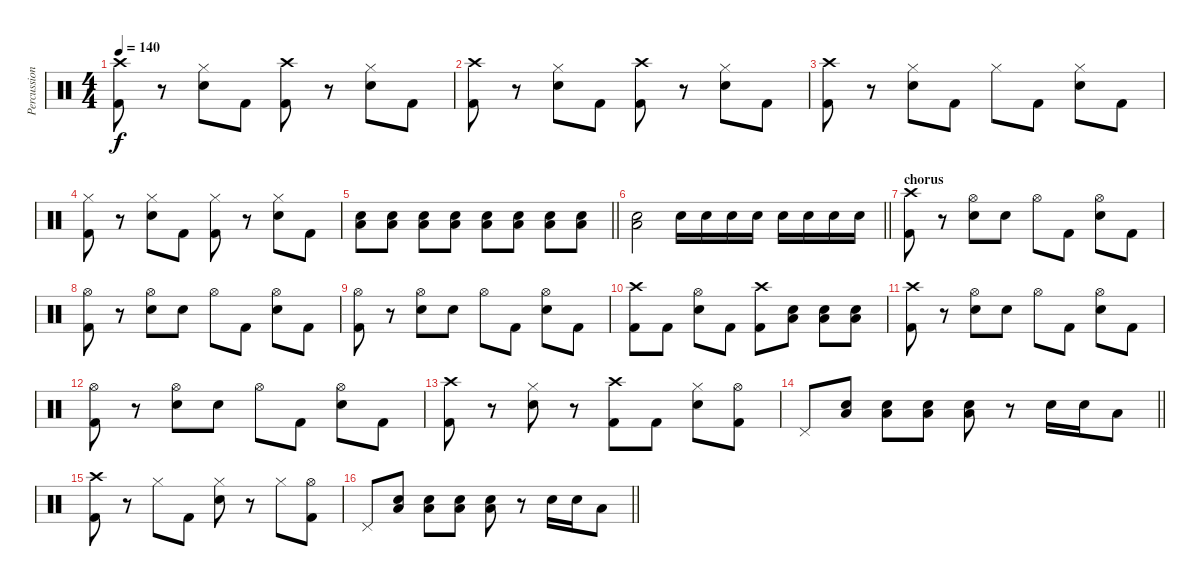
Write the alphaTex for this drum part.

\track ("Percussion" "Percussion") {instrument percussion}
\staff {score}
\articulation defaults
\ts (4 4)
\tempo 140
\clef neutral
\ks c
("Crash high (hit)" "Kick (hit) 2").8{dy f} r.8 ("Hi-Hat (closed)" "Snare (hit) 2").8 "Kick (hit) 2".8 ("Crash high (hit)" "Kick (hit) 2").8 r.8 ("Hi-Hat (closed)" "Snare (hit) 2").8 "Kick (hit) 2".8 |
("Crash high (hit)" "Kick (hit) 2").8 r.8 ("Hi-Hat (closed)" "Snare (hit) 2").8 "Kick (hit) 2".8 ("Crash high (hit)" "Kick (hit) 2").8 r.8 ("Hi-Hat (closed)" "Snare (hit) 2").8 "Kick (hit) 2".8 |
("Crash high (hit)" "Kick (hit) 2").8 r.8 ("Hi-Hat (closed)" "Snare (hit) 2").8 "Kick (hit) 2".8 "Hi-Hat (closed)".8 "Kick (hit) 2".8 ("Hi-Hat (closed)" "Snare (hit) 2").8 "Kick (hit) 2".8 |
("Hi-Hat (closed)" "Kick (hit) 2").8 r.8 ("Hi-Hat (closed)" "Snare (hit) 2").8 "Kick (hit) 2".8 ("Hi-Hat (closed)" "Kick (hit) 2").8 r.8 ("Hi-Hat (closed)" "Snare (hit) 2").8 "Kick (hit) 2".8 |
\barLineRight lightlight
("Low Floor Tom (hit)" "Snare (hit) 2").8 ("Low Floor Tom (hit)" "Snare (hit) 2").8 ("Low Floor Tom (hit)" "Snare (hit) 2").8 ("Low Floor Tom (hit)" "Snare (hit) 2").8 ("Low Floor Tom (hit)" "Snare (hit) 2").8 ("Low Floor Tom (hit)" "Snare (hit) 2").8 ("Low Floor Tom (hit)" "Snare (hit) 2").8 ("Low Floor Tom (hit)" "Snare (hit) 2").8 |
\barLineRight lightlight
("Low Floor Tom (hit)" "Snare (hit) 2").2 "Snare (hit) 2".16 "Snare (hit) 2".16 "Snare (hit) 2".16 "Snare (hit) 2".16 "Snare (hit) 2".16 "Snare (hit) 2".16 "Snare (hit) 2".16 "Snare (hit) 2".16 |
\section ("" "chorus")
("Crash high (hit)" "Kick (hit) 2").8 r.8 ("Hi-Hat (open)" "Snare (hit) 2").8 "Snare (hit) 2".8 "Hi-Hat (open)".8 "Kick (hit) 2".8 ("Hi-Hat (open)" "Snare (hit) 2").8 "Kick (hit) 2".8 |
("Hi-Hat (open)" "Kick (hit) 2").8 r.8 ("Hi-Hat (open)" "Snare (hit) 2").8 "Snare (hit) 2".8 "Hi-Hat (open)".8 "Kick (hit) 2".8 ("Hi-Hat (open)" "Snare (hit) 2").8 "Kick (hit) 2".8 |
("Hi-Hat (open)" "Kick (hit) 2").8 r.8 ("Hi-Hat (open)" "Snare (hit) 2").8 "Snare (hit) 2".8 "Hi-Hat (open)".8 "Kick (hit) 2".8 ("Hi-Hat (open)" "Snare (hit) 2").8 "Kick (hit) 2".8 |
("Crash high (hit)" "Kick (hit) 2").8 "Kick (hit) 2".8 ("Hi-Hat (open)" "Snare (hit) 2").8 "Kick (hit) 2".8 ("Crash high (hit)" "Kick (hit) 2").8 ("Low Floor Tom (hit)" "Snare (hit) 2").8 ("Low Floor Tom (hit)" "Snare (hit) 2").8 ("Low Floor Tom (hit)" "Snare (hit) 2").8 |
("Crash high (hit)" "Kick (hit) 2").8 r.8 ("Hi-Hat (open)" "Snare (hit) 2").8 "Snare (hit) 2".8 "Hi-Hat (open)".8 "Kick (hit) 2".8 ("Hi-Hat (open)" "Snare (hit) 2").8 "Kick (hit) 2".8 |
("Hi-Hat (open)" "Kick (hit) 2").8 r.8 ("Hi-Hat (open)" "Snare (hit) 2").8 "Snare (hit) 2".8 "Hi-Hat (open)".8 "Kick (hit) 2".8 ("Hi-Hat (open)" "Snare (hit) 2").8 "Kick (hit) 2".8 |
("Crash high (hit)" "Kick (hit) 2").8 r.8 ("Hi-Hat (closed)" "Snare (hit) 2").8 r.8 ("Crash high (hit)" "Kick (hit) 2").8 "Kick (hit) 2".8 ("Hi-Hat (closed)" "Snare (hit) 2").8 ("Hi-Hat (open)" "Kick (hit) 2").8 |
\barLineRight lightlight "Pedal Hi-Hat (hit)".8
("Low Floor Tom (hit)" "Snare (hit) 2").8 ("Low Floor Tom (hit)" "Snare (hit) 2").8 ("Low Floor Tom (hit)" "Snare (hit) 2").8 ("Low Floor Tom (hit)" "Snare (hit) 2").8 r.8 "Snare (hit) 2".16 "Snare (hit) 2".16 "Low Floor Tom (hit)".8 |
("Crash high (hit)" "Kick (hit) 2").8 r.8 "Hi-Hat (closed)".8 "Kick (hit) 2".8 ("Hi-Hat (closed)" "Snare (hit) 2").8 r.8 "Hi-Hat (closed)".8 ("Hi-Hat (open)" "Kick (hit) 2").8 |
\barLineRight lightlight "Pedal Hi-Hat (hit)".8
("Low Floor Tom (hit)" "Snare (hit) 2").8 ("Low Floor Tom (hit)" "Snare (hit) 2").8 ("Low Floor Tom (hit)" "Snare (hit) 2").8 ("Low Floor Tom (hit)" "Snare (hit) 2").8 r.8 "Snare (hit) 2".16 "Snare (hit) 2".16 "Low Floor Tom (hit)".8
